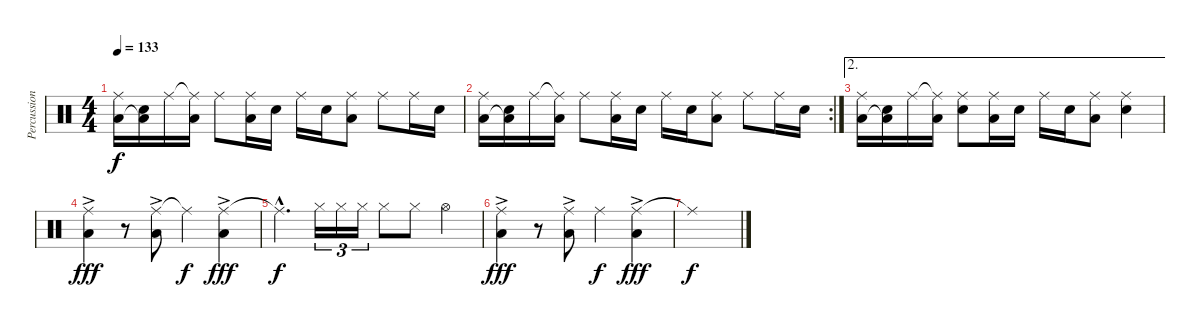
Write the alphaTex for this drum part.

\track ("Percussion" "Percussion") {instrument percussion}
\staff {score}
\articulation defaults
\ts (4 4)
\tempo 133
\clef neutral
\ks c
("Ride (middle)" "Low Floor Tom (hit)").16{dy f} ("Snare (hit) 2" "Low Floor Tom (hit)"{t}).16 "Ride (middle)".16 ("Ride (middle)"{t} "Low Floor Tom (hit)").16 "Ride (middle)".8 ("Ride (middle)" "Low Floor Tom (hit)").16 "Snare (hit) 2".16 "Ride (middle)".16 "Snare (hit) 2".16 ("Ride (middle)" "Low Floor Tom (hit)").8 "Ride (middle)".8 "Ride (middle)".16 "Snare (hit) 2".16 |
\rc 2
("Ride (middle)" "Low Floor Tom (hit)").16 ("Snare (hit) 2" "Low Floor Tom (hit)"{t}).16 "Ride (middle)".16 ("Ride (middle)"{t} "Low Floor Tom (hit)").16 "Ride (middle)".8 ("Ride (middle)" "Low Floor Tom (hit)").16 "Snare (hit) 2".16 "Ride (middle)".16 "Snare (hit) 2".16 ("Ride (middle)" "Low Floor Tom (hit)").8 "Ride (middle)".8 "Ride (middle)".16 "Snare (hit) 2".16 |
\ae 2
("Ride (middle)" "Low Floor Tom (hit)").16 ("Snare (hit) 2" "Low Floor Tom (hit)"{t}).16 "Ride (middle)".16 ("Ride (middle)"{t} "Low Floor Tom (hit)").16 ("Ride (middle)" "Snare (hit) 2").8 ("Ride (middle)" "Low Floor Tom (hit)").16 "Snare (hit) 2".16 "Ride (middle)".16 "Snare (hit) 2".16 ("Ride (middle)" "Low Floor Tom (hit)").8 ("Ride (middle)" "Snare (hit) 2").4 |
("Ride (middle)"{ac} "Low Floor Tom (hit)").4{dy fff} r.8 ("Ride (middle)"{ac} "Low Floor Tom (hit)").8 "Ride (middle)"{t}.4{dy f} ("Ride (middle)"{ac} "Low Floor Tom (hit)").4{dy fff} |
"Ride (middle)"{hac t}.4{d dy f} "Hi-Hat (closed)".16{tu (3 2)} "Hi-Hat (closed)".16{tu (3 2)} "Hi-Hat (closed)".16{tu (3 2)} "Hi-Hat (closed)".8 "Hi-Hat (closed)".8 "Hi-Hat (open)".4 |
("Ride (middle)"{ac} "Low Floor Tom (hit)").4{dy fff} r.8 ("Ride (middle)"{ac} "Low Floor Tom (hit)").8 "Ride (middle)".4{dy f} ("Ride (middle)"{ac} "Low Floor Tom (hit)").4{dy fff} |
"Ride (middle)"{t}.1{dy f}
